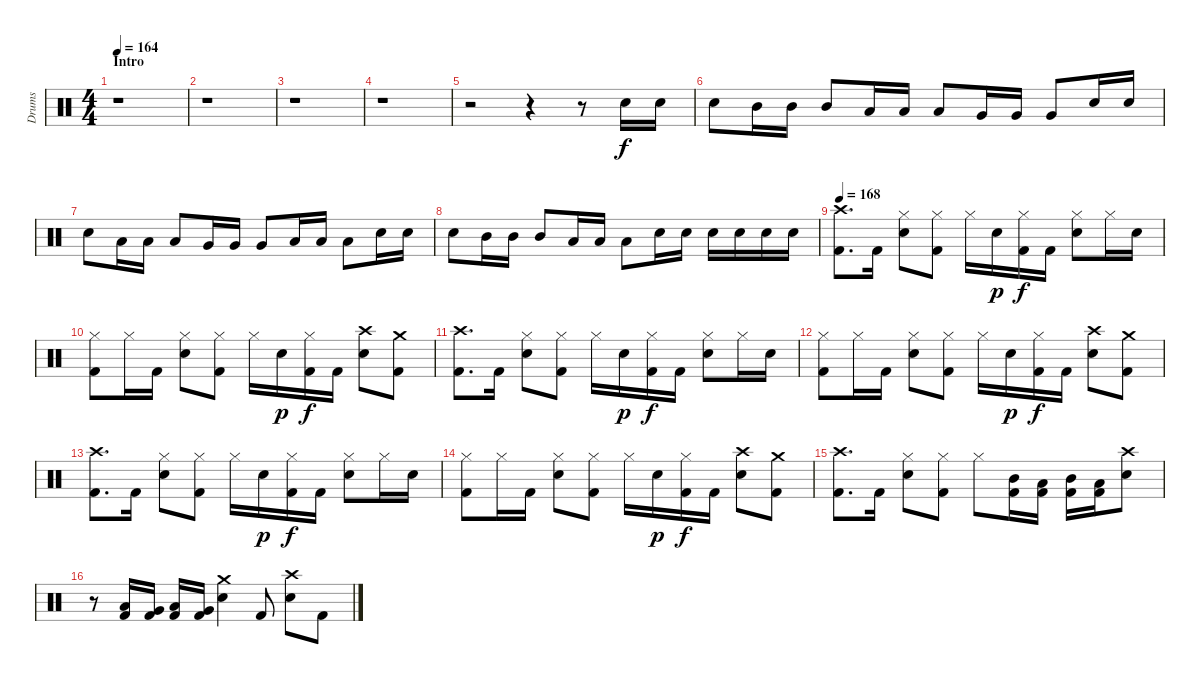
\track ("Drums" "Drums") {instrument percussion}
\staff {score}
\articulation defaults
\ts (4 4)
\section ("" "Intro")
\tempo 164
\clef neutral
\ks c
r.1{dy f} |
r.1 |
r.1 |
r.1 |
r.2 r.4 r.8 "Snare (hit) 2".16 "Snare (hit) 2".16 |
"Snare (hit) 2".8 "Mid Tom (hit)".16 "Mid Tom (hit)".16 "Mid Tom (hit)".8 "Low Tom (hit)".16 "Low Tom (hit)".16 "Low Tom (hit)".8 "Very Low Tom (hit)".16 "Very Low Tom (hit)".16 "Very Low Tom (hit)".8 "Snare (hit) 2".16 "Snare (hit) 2".16 |
"Snare (hit) 2".8 "Low Tom (hit)".16 "Low Tom (hit)".16 "Low Tom (hit)".8 "Very Low Tom (hit)".16 "Very Low Tom (hit)".16 "Very Low Tom (hit)".8 "Low Floor Tom (hit)".16 "Low Floor Tom (hit)".16 "Low Floor Tom (hit)".8 "Snare (hit) 2".16 "Snare (hit) 2".16 |
"Snare (hit) 2".8 "Mid Tom (hit)".16 "Mid Tom (hit)".16 "Mid Tom (hit)".8 "Low Tom (hit)".16 "Low Tom (hit)".16 "Low Tom (hit)".8 "Snare (hit) 2".16 "Snare (hit) 2".16 "Snare (hit) 2".16 "Snare (hit) 2".16 "Snare (hit) 2".16 "Snare (hit) 2".16 |
\tempo 168
("Crash high (hit)" "Kick (hit) 2").8{d} "Kick (hit) 2".16 ("Hi-Hat (closed)" "Snare (hit) 2").8 ("Hi-Hat (closed)" "Kick (hit) 2").8 "Hi-Hat (closed)".16 "Snare (hit) 2".16{dy p} ("Hi-Hat (closed)" "Kick (hit) 2").16{dy f} "Kick (hit) 2".16 ("Hi-Hat (closed)" "Snare (hit) 2").8 "Hi-Hat (closed)".16 "Snare (hit) 2".16 |
("Hi-Hat (closed)" "Kick (hit) 2").8 "Hi-Hat (closed)".16 "Kick (hit) 2".16 ("Hi-Hat (closed)" "Snare (hit) 2").8 ("Hi-Hat (closed)" "Kick (hit) 2").8 "Hi-Hat (closed)".16 "Snare (hit) 2".16{dy p} ("Hi-Hat (closed)" "Kick (hit) 2").16{dy f} "Kick (hit) 2".16 ("Crash high (hit)" "Snare (hit) 2").8 ("Crash medium (hit)" "Kick (hit) 2").8 |
("Crash high (hit)" "Kick (hit) 2").8{d} "Kick (hit) 2".16 ("Hi-Hat (closed)" "Snare (hit) 2").8 ("Hi-Hat (closed)" "Kick (hit) 2").8 "Hi-Hat (closed)".16 "Snare (hit) 2".16{dy p} ("Hi-Hat (closed)" "Kick (hit) 2").16{dy f} "Kick (hit) 2".16 ("Hi-Hat (closed)" "Snare (hit) 2").8 "Hi-Hat (closed)".16 "Snare (hit) 2".16 |
("Hi-Hat (closed)" "Kick (hit) 2").8 "Hi-Hat (closed)".16 "Kick (hit) 2".16 ("Hi-Hat (closed)" "Snare (hit) 2").8 ("Hi-Hat (closed)" "Kick (hit) 2").8 "Hi-Hat (closed)".16 "Snare (hit) 2".16{dy p} ("Hi-Hat (closed)" "Kick (hit) 2").16{dy f} "Kick (hit) 2".16 ("Crash high (hit)" "Snare (hit) 2").8 ("Crash medium (hit)" "Kick (hit) 2").8 |
("Crash high (hit)" "Kick (hit) 2").8{d} "Kick (hit) 2".16 ("Hi-Hat (closed)" "Snare (hit) 2").8 ("Hi-Hat (closed)" "Kick (hit) 2").8 "Hi-Hat (closed)".16 "Snare (hit) 2".16{dy p} ("Hi-Hat (closed)" "Kick (hit) 2").16{dy f} "Kick (hit) 2".16 ("Hi-Hat (closed)" "Snare (hit) 2").8 "Hi-Hat (closed)".16 "Snare (hit) 2".16 |
("Hi-Hat (closed)" "Kick (hit) 2").8 "Hi-Hat (closed)".16 "Kick (hit) 2".16 ("Hi-Hat (closed)" "Snare (hit) 2").8 ("Hi-Hat (closed)" "Kick (hit) 2").8 "Hi-Hat (closed)".16 "Snare (hit) 2".16{dy p} ("Hi-Hat (closed)" "Kick (hit) 2").16{dy f} "Kick (hit) 2".16 ("Crash high (hit)" "Snare (hit) 2").8 ("Crash medium (hit)" "Kick (hit) 2").8 |
("Crash high (hit)" "Kick (hit) 2").8{d} "Kick (hit) 2".16 ("Hi-Hat (closed)" "Snare (hit) 2").8 ("Hi-Hat (closed)" "Kick (hit) 2").8 "Hi-Hat (closed)".8 ("Mid Tom (hit)" "Kick (hit) 2").16 ("Low Tom (hit)" "Kick (hit) 2").16 ("Mid Tom (hit)" "Kick (hit) 2").16 ("Low Tom (hit)" "Kick (hit) 2").16 ("Crash high (hit)" "Snare (hit) 2").8 |
r.8 ("Low Tom (hit)" "Kick (hit) 2").16 ("Very Low Tom (hit)" "Kick (hit) 2").16 ("Low Tom (hit)" "Kick (hit) 2").16 ("Very Low Tom (hit)" "Kick (hit) 2").16 ("Crash medium (hit)" "Snare (hit) 2").4 "Kick (hit) 2".8 ("Crash high (hit)" "Snare (hit) 2").8 "Kick (hit) 2".8
